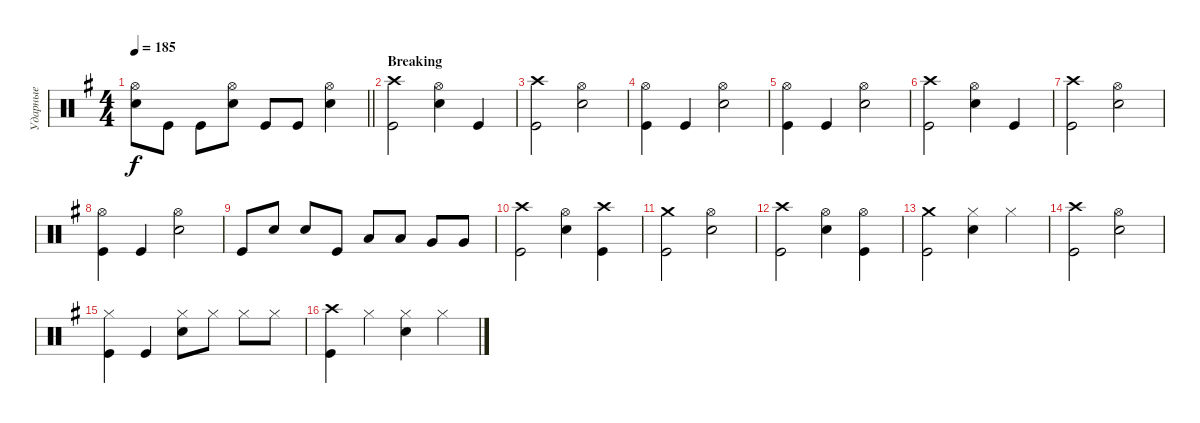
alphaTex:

\track ("Ударные" "Ударные") {instrument percussion}
\staff {score}
\articulation defaults
\ts (4 4)
\tempo 185
\clef neutral
\barLineRight lightlight
\ks eminor
("Snare (hit) 2" "Hi-Hat (open)").8{dy f} "Kick (hit)".8 "Kick (hit)".8 ("Snare (hit) 2" "Hi-Hat (open)").8 "Kick (hit)".8 "Kick (hit)".8 ("Snare (hit) 2" "Hi-Hat (open)").4 |
\section ("" "Breaking")
("Kick (hit)" "Crash high (hit)").2 ("Snare (hit) 2" "Hi-Hat (open)").4 "Kick (hit)".4 |
("Kick (hit)" "Crash high (hit)").2 ("Snare (hit) 2" "Hi-Hat (open)").2 |
("Kick (hit)" "Hi-Hat (open)").4 "Kick (hit)".4 ("Snare (hit) 2" "Hi-Hat (open)").2 |
("Kick (hit)" "Hi-Hat (open)").4 "Kick (hit)".4 ("Snare (hit) 2" "Hi-Hat (open)").2 |
("Kick (hit)" "Crash high (hit)").2 ("Snare (hit) 2" "Hi-Hat (open)").4 "Kick (hit)".4 |
("Kick (hit)" "Crash high (hit)").2 ("Snare (hit) 2" "Hi-Hat (open)").2 |
("Kick (hit)" "Hi-Hat (open)").4 "Kick (hit)".4 ("Snare (hit) 2" "Hi-Hat (open)").2 |
"Kick (hit)".8 "Snare (hit) 2".8 "Snare (hit) 2".8 "Kick (hit)".8 "Low Tom (hit)".8 "Low Tom (hit)".8 "Very Low Tom (hit)".8 "Very Low Tom (hit)".8 |
("Kick (hit)" "Crash high (hit)").2 ("Snare (hit) 2" "Hi-Hat (open)").4 ("Kick (hit)" "Crash high (hit)").4 |
("Kick (hit)" "Crash medium (hit)").2 ("Snare (hit) 2" "Hi-Hat (open)").2 |
("Kick (hit)" "Crash high (hit)").2 ("Snare (hit) 2" "Hi-Hat (open)").4 ("Kick (hit)" "Hi-Hat (open)").4 |
("Kick (hit)" "Crash medium (hit)").2 ("Snare (hit) 2" "Hi-Hat (closed)").4 "Hi-Hat (closed)".4 |
("Kick (hit)" "Crash high (hit)").2 ("Snare (hit) 2" "Hi-Hat (open)").2 |
("Kick (hit)" "Hi-Hat (closed)").4 "Kick (hit)".4 ("Hi-Hat (closed)" "Snare (hit) 2").8 "Hi-Hat (closed)".8 "Hi-Hat (closed)".8 "Hi-Hat (closed)".8 |
("Kick (hit)" "Crash high (hit)").4 "Hi-Hat (closed)".4 ("Hi-Hat (closed)" "Snare (hit) 2").4 "Hi-Hat (closed)".4
